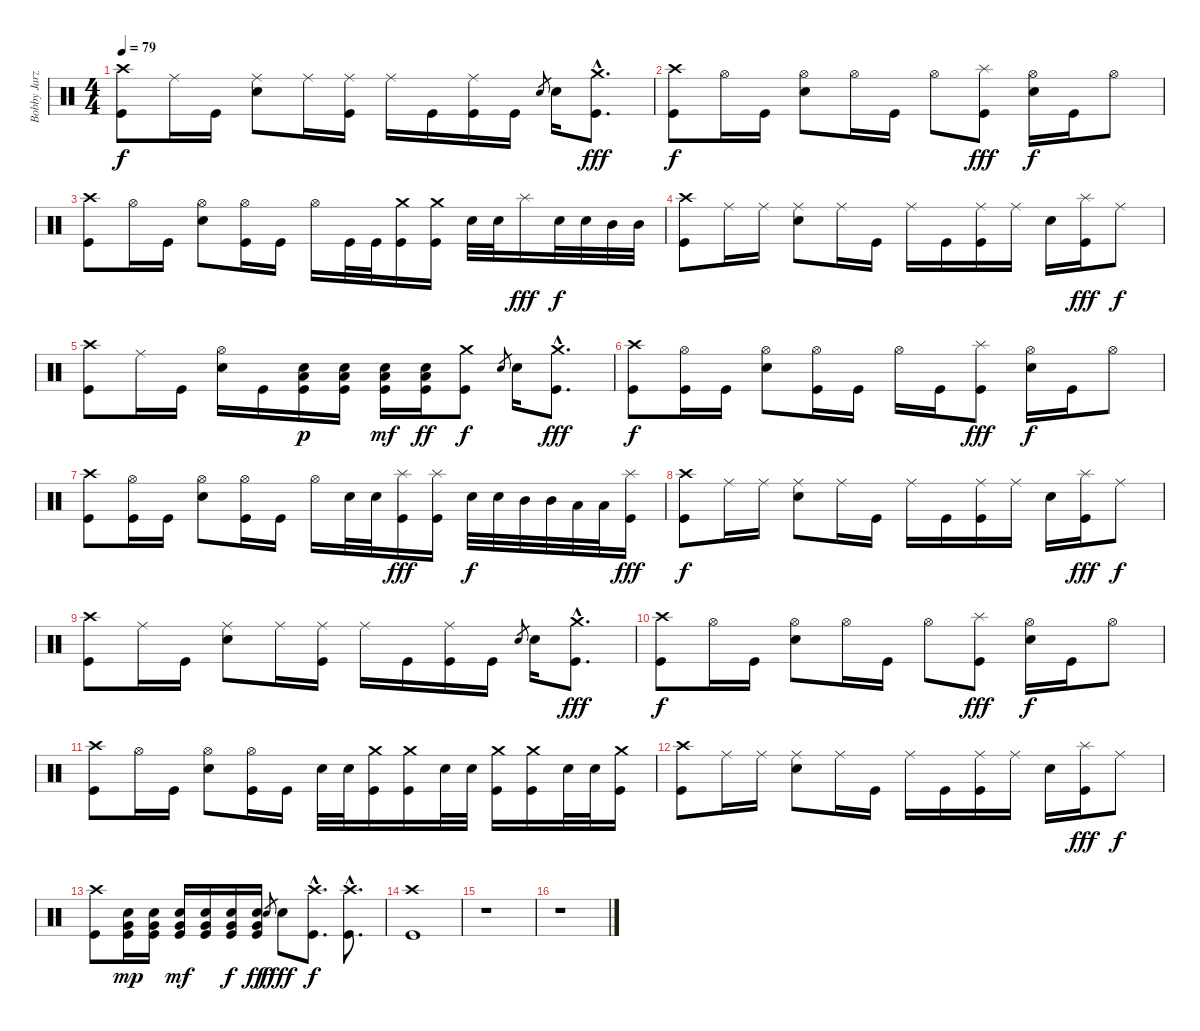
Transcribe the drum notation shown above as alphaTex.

\track ("Bobby Jarzombek" "Bobby Jarz") {instrument percussion}
\staff {score}
\articulation defaults
\ts (4 4)
\tempo 79
\clef neutral
\ks c
("Crash high (hit)" "Kick (hit)").8{dy f} "Ride (middle)".16 "Kick (hit)".16 ("Ride (middle)" "Electric Snare (hit)").8 "Ride (middle)".16 ("Ride (middle)" "Kick (hit)").16 "Ride (middle)".16 "Kick (hit)".16 ("Ride (middle)" "Kick (hit)").16 "Kick (hit)".16 "Electric Snare (hit)".8{gr} "Electric Snare (hit)".16 ("Crash medium (hit)"{hac} "Kick (hit)"{hac}).8{d dy fff} |
("Crash high (hit)" "Kick (hit)").8{dy f} "Hi-Hat (open)".16 "Kick (hit)".16 ("Hi-Hat (open)" "Electric Snare (hit)").8 "Hi-Hat (open)".16 "Kick (hit)".16 "Hi-Hat (open)".8 ("Splash (hit)" "Kick (hit)").8{dy fff} ("Hi-Hat (open)" "Electric Snare (hit)").16{dy f} "Kick (hit)".16 "Hi-Hat (open)".8 |
("Crash high (hit)" "Kick (hit)").8 "Hi-Hat (open)".16 "Kick (hit)".16 ("Hi-Hat (open)" "Electric Snare (hit)").8 ("Hi-Hat (open)" "Kick (hit)").16 "Kick (hit)".16 "Hi-Hat (open)".16 "Kick (hit)".32 "Kick (hit)".32 ("Crash medium (hit)" "Kick (hit)").16 ("Crash medium (hit)" "Kick (hit)").16 "Electric Snare (hit)".32 "Electric Snare (hit)".32 "Splash (hit)".16{dy fff} "Electric Snare (hit)".32{dy f} "Electric Snare (hit)".32 "Mid Tom (hit)".32 "Mid Tom (hit)".32 |
("Crash high (hit)" "Kick (hit)").8 "Ride (middle)".16 "Ride (middle)".16 ("Ride (middle)" "Electric Snare (hit)").8 "Ride (middle)".16 "Kick (hit)".16 "Ride (middle)".16 "Kick (hit)".16 ("Ride (middle)" "Kick (hit)").16 "Ride (middle)".16 "Electric Snare (hit)".16 ("Splash (hit)" "Kick (hit)").16{dy fff} "Ride (middle)".8{dy f} |
("Crash high (hit)" "Kick (hit)").8 "Ride (middle)".16 "Kick (hit)".16 ("Hi-Hat (open)" "Electric Snare (hit)").16 "Kick (hit)".16 ("Low Tom (hit)" "Electric Snare (hit)" "Kick (hit)").16{dy p} ("Low Tom (hit)" "Electric Snare (hit)" "Kick (hit)").16 ("Low Tom (hit)" "Electric Snare (hit)" "Kick (hit)").16{dy mf} ("Low Tom (hit)" "Electric Snare (hit)" "Kick (hit)").16{dy ff} ("Crash medium (hit)" "Kick (hit)").8{dy f} "Electric Snare (hit)".8{gr} "Electric Snare (hit)".16 ("Crash medium (hit)"{hac} "Kick (hit)"{hac}).8{d dy fff} |
("Crash high (hit)" "Kick (hit)").8{dy f} ("Hi-Hat (open)" "Kick (hit)").16 "Kick (hit)".16 ("Hi-Hat (open)" "Electric Snare (hit)").8 ("Hi-Hat (open)" "Kick (hit)").16 "Kick (hit)".16 "Hi-Hat (open)".16 "Kick (hit)".16 ("Splash (hit)" "Kick (hit)").8{dy fff} ("Hi-Hat (open)" "Electric Snare (hit)").16{dy f} "Kick (hit)".16 "Hi-Hat (open)".8 |
("Crash high (hit)" "Kick (hit)").8 ("Hi-Hat (open)" "Kick (hit)").16 "Kick (hit)".16 ("Hi-Hat (open)" "Electric Snare (hit)").8 ("Hi-Hat (open)" "Kick (hit)").16 "Kick (hit)".16 "Hi-Hat (open)".16 "Electric Snare (hit)".32 "Electric Snare (hit)".32 ("Splash (hit)" "Kick (hit)").16{dy fff} ("Splash (hit)" "Kick (hit)").16 "Electric Snare (hit)".32{dy f} "Electric Snare (hit)".32 "Mid Tom (hit)".32 "Mid Tom (hit)".32 "Low Tom (hit)".32 "Low Tom (hit)".32 ("Splash (hit)" "Kick (hit)").16{dy fff} |
("Crash high (hit)" "Kick (hit)").8{dy f} "Ride (middle)".16 "Ride (middle)".16 ("Ride (middle)" "Electric Snare (hit)").8 "Ride (middle)".16 "Kick (hit)".16 "Ride (middle)".16 "Kick (hit)".16 ("Ride (middle)" "Kick (hit)").16 "Ride (middle)".16 "Electric Snare (hit)".16 ("Splash (hit)" "Kick (hit)").16{dy fff} "Ride (middle)".8{dy f} |
("Crash high (hit)" "Kick (hit)").8 "Ride (middle)".16 "Kick (hit)".16 ("Ride (middle)" "Electric Snare (hit)").8 "Ride (middle)".16 ("Ride (middle)" "Kick (hit)").16 "Ride (middle)".16 "Kick (hit)".16 ("Ride (middle)" "Kick (hit)").16 "Kick (hit)".16 "Electric Snare (hit)".8{gr} "Electric Snare (hit)".16 ("Crash medium (hit)"{hac} "Kick (hit)"{hac}).8{d dy fff} |
("Crash high (hit)" "Kick (hit)").8{dy f} "Hi-Hat (open)".16 "Kick (hit)".16 ("Hi-Hat (open)" "Electric Snare (hit)").8 "Hi-Hat (open)".16 "Kick (hit)".16 "Hi-Hat (open)".8 ("Splash (hit)" "Kick (hit)").8{dy fff} ("Hi-Hat (open)" "Electric Snare (hit)").16{dy f} "Kick (hit)".16 "Hi-Hat (open)".8 |
("Crash high (hit)" "Kick (hit)").8 "Hi-Hat (open)".16 "Kick (hit)".16 ("Hi-Hat (open)" "Electric Snare (hit)").8 ("Hi-Hat (open)" "Kick (hit)").16 "Kick (hit)".16 "Electric Snare (hit)".32 "Electric Snare (hit)".32 ("Crash medium (hit)" "Kick (hit)").16 ("Crash medium (hit)" "Kick (hit)").16 "Electric Snare (hit)".32 "Electric Snare (hit)".32 ("Crash medium (hit)" "Kick (hit)").16 ("Crash medium (hit)" "Kick (hit)").16 "Electric Snare (hit)".32 "Electric Snare (hit)".32 ("Crash medium (hit)" "Kick (hit)").16 |
("Crash high (hit)" "Kick (hit)").8 "Ride (middle)".16 "Ride (middle)".16 ("Ride (middle)" "Electric Snare (hit)").8 "Ride (middle)".16 "Kick (hit)".16 "Ride (middle)".16 "Kick (hit)".16 ("Ride (middle)" "Kick (hit)").16 "Ride (middle)".16 "Electric Snare (hit)".16 ("Splash (hit)" "Kick (hit)").16{dy fff} "Ride (middle)".8{dy f} |
("Crash high (hit)" "Kick (hit)").8 ("Electric Snare (hit)" "Very Low Tom (hit)" "Kick (hit)").16{dy mp} ("Electric Snare (hit)" "Very Low Tom (hit)" "Kick (hit)").16 ("Electric Snare (hit)" "Very Low Tom (hit)" "Kick (hit)").16{dy mf} ("Electric Snare (hit)" "Very Low Tom (hit)" "Kick (hit)").16 ("Electric Snare (hit)" "Very Low Tom (hit)" "Kick (hit)").16{dy f} ("Electric Snare (hit)" "Very Low Tom (hit)" "Kick (hit)").16{dy ff} "Electric Snare (hit)".8{gr dy f} "Electric Snare (hit)".8{dy fff} ("Crash high (hit)"{hac} "Kick (hit)"{hac}).8{d dy f} ("Crash high (hit)"{hac} "Kick (hit)"{hac}).8{d} |
("Crash high (hit)" "Kick (hit)").1 |
r.1 |
r.1
